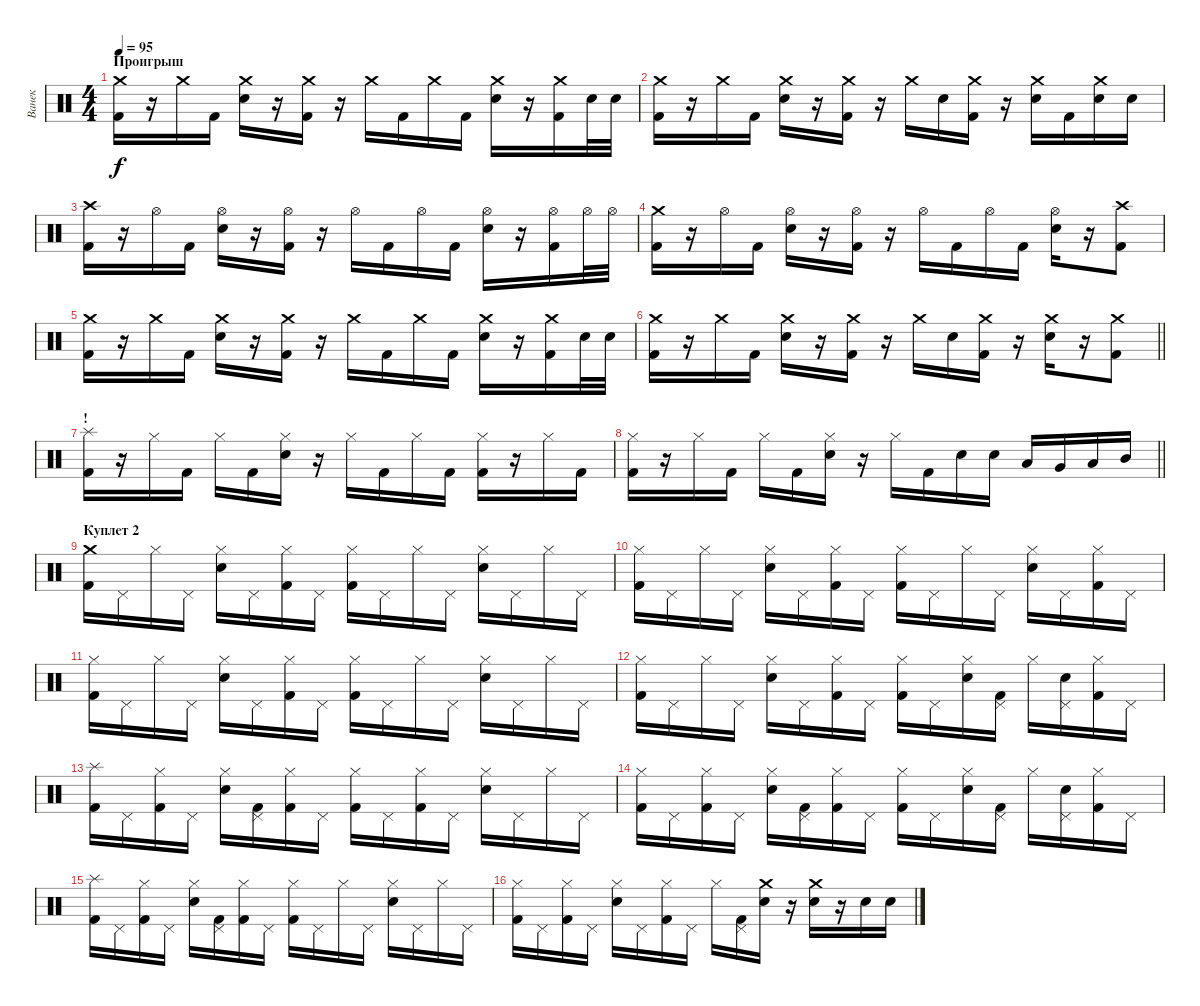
\track ("Ванек" "Ванек") {instrument percussion}
\staff {score}
\articulation defaults
\ts (4 4)
\section ("" "Проигрыш")
\tempo 95
\clef neutral
\ks c
("Crash medium (hit)" "Kick (hit) 2").16{dy f} r.16 "Crash medium (hit)".16 "Kick (hit) 2".16 ("Crash medium (hit)" "Snare (hit) 2").16 r.16 ("Crash medium (hit)" "Kick (hit) 2").16 r.16 "Crash medium (hit)".16 "Kick (hit) 2".16 "Crash medium (hit)".16 "Kick (hit) 2".16 ("Crash medium (hit)" "Snare (hit) 2").16 r.16 ("Crash medium (hit)" "Kick (hit) 2").16 "Snare (hit) 2".32 "Snare (hit) 2".32 |
("Crash medium (hit)" "Kick (hit) 2").16 r.16 "Crash medium (hit)".16 "Kick (hit) 2".16 ("Crash medium (hit)" "Snare (hit) 2").16 r.16 ("Crash medium (hit)" "Kick (hit) 2").16 r.16 "Crash medium (hit)".16 "Snare (hit) 2".16 ("Crash medium (hit)" "Kick (hit) 2").16 r.16 ("Crash medium (hit)" "Snare (hit) 2").16 "Kick (hit) 2".16 ("Crash medium (hit)" "Snare (hit) 2").16 "Snare (hit) 2".16 |
("Crash high (hit)" "Kick (hit) 2").16 r.16 "Hi-Hat (open)".16 "Kick (hit) 2".16 ("Hi-Hat (open)" "Snare (hit) 2").16 r.16 ("Hi-Hat (open)" "Kick (hit) 2").16 r.16 "Hi-Hat (open)".16 "Kick (hit) 2".16 "Hi-Hat (open)".16 "Kick (hit) 2".16 ("Hi-Hat (open)" "Snare (hit) 2").16 r.16 ("Hi-Hat (open)" "Kick (hit) 2").16 "Hi-Hat (open)".32 "Hi-Hat (open)".32 |
("Crash medium (hit)" "Kick (hit) 2").16 r.16 "Hi-Hat (open)".16 "Kick (hit) 2".16 ("Hi-Hat (open)" "Snare (hit) 2").16 r.16 ("Hi-Hat (open)" "Kick (hit) 2").16 r.16 "Hi-Hat (open)".16 "Kick (hit) 2".16 "Hi-Hat (open)".16 "Kick (hit) 2".16 ("Hi-Hat (open)" "Snare (hit) 2").16 r.16 ("Crash high (hit)" "Kick (hit) 2").8 |
("Crash medium (hit)" "Kick (hit) 2").16 r.16 "Crash medium (hit)".16 "Kick (hit) 2".16 ("Crash medium (hit)" "Snare (hit) 2").16 r.16 ("Crash medium (hit)" "Kick (hit) 2").16 r.16 "Crash medium (hit)".16 "Kick (hit) 2".16 "Crash medium (hit)".16 "Kick (hit) 2".16 ("Crash medium (hit)" "Snare (hit) 2").16 r.16 ("Crash medium (hit)" "Kick (hit) 2").16 "Snare (hit) 2".32 "Snare (hit) 2".32 |
\barLineRight lightlight
("Crash medium (hit)" "Kick (hit) 2").16 r.16 "Crash medium (hit)".16 "Kick (hit) 2".16 ("Crash medium (hit)" "Snare (hit) 2").16 r.16 ("Crash medium (hit)" "Kick (hit) 2").16 r.16 "Crash medium (hit)".16 "Snare (hit) 2".16 ("Crash medium (hit)" "Kick (hit) 2").16 r.16 ("Crash medium (hit)" "Snare (hit) 2").16 r.16 ("Crash medium (hit)" "Kick (hit) 2").8 |
\section ("" "!")
("Splash (hit)" "Kick (hit) 2").16 r.16 "Hi-Hat (closed)".16 "Kick (hit) 2".16 "Hi-Hat (closed)".16 "Kick (hit) 2".16 ("Hi-Hat (closed)" "Snare (hit) 2").16 r.16 "Hi-Hat (closed)".16 "Kick (hit) 2".16 "Hi-Hat (closed)".16 "Kick (hit) 2".16 ("Hi-Hat (closed)" "Kick (hit) 2").16 r.16 "Hi-Hat (closed)".16 "Kick (hit) 2".16 |
\barLineRight lightlight
("Hi-Hat (closed)" "Kick (hit) 2").16 r.16 "Hi-Hat (closed)".16 "Kick (hit) 2".16 "Hi-Hat (closed)".16 "Kick (hit) 2".16 ("Hi-Hat (closed)" "Snare (hit) 2").16 r.16 "Hi-Hat (closed)".16 "Kick (hit) 2".16 "Snare (hit) 2".16 "Snare (hit) 2".16 "Low Floor Tom (hit)".16 "Very Low Tom (hit)".16 "Low Tom (hit)".16 "Mid Tom (hit)".16 |
\section ("" "Куплет 2")
("Crash medium (hit)" "Kick (hit) 2").16 "Pedal Hi-Hat (hit)".16 "Hi-Hat (closed)".16 "Pedal Hi-Hat (hit)".16 ("Hi-Hat (closed)" "Snare (hit) 2").16 "Pedal Hi-Hat (hit)".16 ("Hi-Hat (closed)" "Kick (hit) 2").16 "Pedal Hi-Hat (hit)".16 ("Hi-Hat (closed)" "Kick (hit) 2").16 "Pedal Hi-Hat (hit)".16 "Hi-Hat (closed)".16 "Pedal Hi-Hat (hit)".16 ("Hi-Hat (closed)" "Snare (hit) 2").16 "Pedal Hi-Hat (hit)".16 "Hi-Hat (closed)".16 "Pedal Hi-Hat (hit)".16 |
("Hi-Hat (closed)" "Kick (hit) 2").16 "Pedal Hi-Hat (hit)".16 "Hi-Hat (closed)".16 "Pedal Hi-Hat (hit)".16 ("Hi-Hat (closed)" "Snare (hit) 2").16 "Pedal Hi-Hat (hit)".16 ("Hi-Hat (closed)" "Kick (hit) 2").16 "Pedal Hi-Hat (hit)".16 ("Hi-Hat (closed)" "Kick (hit) 2").16 "Pedal Hi-Hat (hit)".16 "Hi-Hat (closed)".16 "Pedal Hi-Hat (hit)".16 ("Hi-Hat (closed)" "Snare (hit) 2").16 "Pedal Hi-Hat (hit)".16 ("Hi-Hat (closed)" "Kick (hit) 2").16 "Pedal Hi-Hat (hit)".16 |
("Hi-Hat (closed)" "Kick (hit) 2").16 "Pedal Hi-Hat (hit)".16 "Hi-Hat (closed)".16 "Pedal Hi-Hat (hit)".16 ("Hi-Hat (closed)" "Snare (hit) 2").16 "Pedal Hi-Hat (hit)".16 ("Hi-Hat (closed)" "Kick (hit) 2").16 "Pedal Hi-Hat (hit)".16 ("Hi-Hat (closed)" "Kick (hit) 2").16 "Pedal Hi-Hat (hit)".16 "Hi-Hat (closed)".16 "Pedal Hi-Hat (hit)".16 ("Hi-Hat (closed)" "Snare (hit) 2").16 "Pedal Hi-Hat (hit)".16 "Hi-Hat (closed)".16 "Pedal Hi-Hat (hit)".16 |
("Hi-Hat (closed)" "Kick (hit) 2").16 "Pedal Hi-Hat (hit)".16 "Hi-Hat (closed)".16 "Pedal Hi-Hat (hit)".16 ("Hi-Hat (closed)" "Snare (hit) 2").16 "Pedal Hi-Hat (hit)".16 ("Hi-Hat (closed)" "Kick (hit) 2").16 "Pedal Hi-Hat (hit)".16 ("Hi-Hat (closed)" "Kick (hit) 2").16 "Pedal Hi-Hat (hit)".16 ("Hi-Hat (closed)" "Snare (hit) 2").16 ("Pedal Hi-Hat (hit)" "Kick (hit) 2").16 "Hi-Hat (closed)".16 ("Pedal Hi-Hat (hit)" "Snare (hit) 2").16 ("Hi-Hat (closed)" "Kick (hit) 2").16 "Pedal Hi-Hat (hit)".16 |
("Splash (hit)" "Kick (hit) 2").16 "Pedal Hi-Hat (hit)".16 ("Hi-Hat (closed)" "Kick (hit) 2").16 "Pedal Hi-Hat (hit)".16 ("Hi-Hat (closed)" "Snare (hit) 2").16 ("Pedal Hi-Hat (hit)" "Kick (hit) 2").16 ("Hi-Hat (closed)" "Kick (hit) 2").16 "Pedal Hi-Hat (hit)".16 ("Hi-Hat (closed)" "Kick (hit) 2").16 "Pedal Hi-Hat (hit)".16 ("Hi-Hat (closed)" "Kick (hit) 2").16 "Pedal Hi-Hat (hit)".16 ("Hi-Hat (closed)" "Snare (hit) 2").16 "Pedal Hi-Hat (hit)".16 "Hi-Hat (closed)".16 "Pedal Hi-Hat (hit)".16 |
("Hi-Hat (closed)" "Kick (hit) 2").16 "Pedal Hi-Hat (hit)".16 ("Hi-Hat (closed)" "Kick (hit) 2").16 "Pedal Hi-Hat (hit)".16 ("Hi-Hat (closed)" "Snare (hit) 2").16 ("Pedal Hi-Hat (hit)" "Kick (hit) 2").16 ("Hi-Hat (closed)" "Kick (hit) 2").16 "Pedal Hi-Hat (hit)".16 ("Hi-Hat (closed)" "Kick (hit) 2").16 "Pedal Hi-Hat (hit)".16 ("Hi-Hat (closed)" "Snare (hit) 2").16 ("Pedal Hi-Hat (hit)" "Kick (hit) 2").16 "Hi-Hat (closed)".16 ("Pedal Hi-Hat (hit)" "Snare (hit) 2").16 ("Hi-Hat (closed)" "Kick (hit) 2").16 "Pedal Hi-Hat (hit)".16 |
("Splash (hit)" "Kick (hit) 2").16 "Pedal Hi-Hat (hit)".16 ("Hi-Hat (closed)" "Kick (hit) 2").16 "Pedal Hi-Hat (hit)".16 ("Hi-Hat (closed)" "Snare (hit) 2").16 ("Pedal Hi-Hat (hit)" "Kick (hit) 2").16 ("Hi-Hat (closed)" "Kick (hit) 2").16 "Pedal Hi-Hat (hit)".16 ("Hi-Hat (closed)" "Kick (hit) 2").16 "Pedal Hi-Hat (hit)".16 "Hi-Hat (closed)".16 "Pedal Hi-Hat (hit)".16 ("Hi-Hat (closed)" "Snare (hit) 2").16 "Pedal Hi-Hat (hit)".16 "Hi-Hat (closed)".16 "Pedal Hi-Hat (hit)".16 |
("Hi-Hat (closed)" "Kick (hit) 2").16 "Pedal Hi-Hat (hit)".16 ("Hi-Hat (closed)" "Kick (hit) 2").16 "Pedal Hi-Hat (hit)".16 ("Hi-Hat (closed)" "Snare (hit) 2").16 "Pedal Hi-Hat (hit)".16 ("Hi-Hat (closed)" "Kick (hit) 2").16 "Pedal Hi-Hat (hit)".16 "Hi-Hat (closed)".16 ("Pedal Hi-Hat (hit)" "Kick (hit) 2").16 ("Crash medium (hit)" "Snare (hit) 2").16 r.16 ("Crash medium (hit)" "Snare (hit) 2").16 r.16 "Snare (hit) 2".16 "Snare (hit) 2".16
